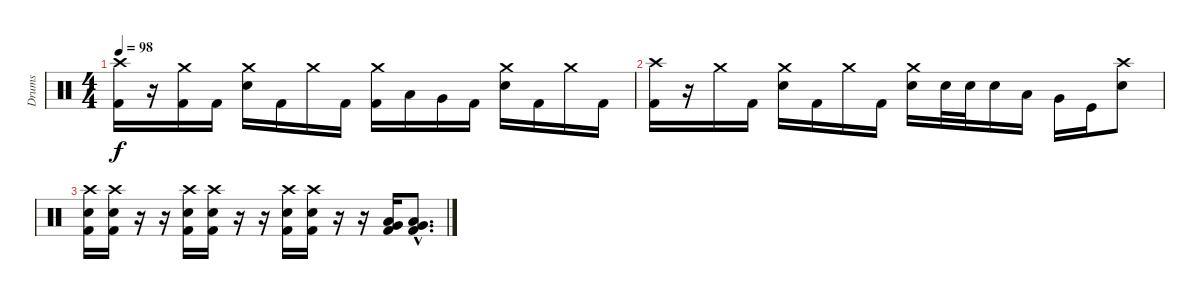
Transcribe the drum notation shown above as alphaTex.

\track ("Drums" "Drums") {instrument percussion}
\staff {score}
\articulation defaults
\ts (4 4)
\tempo 98
\clef neutral
\ks c
("Crash high (hit)" "Kick (hit) 2").16{dy f} r.16 ("Crash medium (hit)" "Kick (hit) 2").16 "Kick (hit) 2".16 ("Crash medium (hit)" "Snare (hit) 2").16 "Kick (hit) 2".16 "Crash medium (hit)".16 "Kick (hit) 2".16 ("Crash medium (hit)" "Kick (hit) 2").16 "Low Tom (hit)".16 "Very Low Tom (hit)".16 "Kick (hit) 2".16 ("Crash medium (hit)" "Snare (hit) 2").16 "Kick (hit) 2".16 "Crash medium (hit)".16 "Kick (hit) 2".16 |
("Crash high (hit)" "Kick (hit) 2").16 r.16 "Crash medium (hit)".16 "Kick (hit) 2".16 ("Crash medium (hit)" "Snare (hit) 2").16 "Kick (hit) 2".16 "Crash medium (hit)".16 "Kick (hit) 2".16 ("Crash medium (hit)" "Snare (hit) 2").16 "Snare (hit) 2".32 "Snare (hit) 2".32 "Snare (hit) 2".16 "Low Tom (hit)".16 "Very Low Tom (hit)".16 "Kick (hit)".16 ("Crash high (hit)" "Snare (hit) 2").8 |
("Crash high (hit)" "Snare (hit) 2" "Kick (hit) 2").16 ("Crash high (hit)" "Snare (hit) 2" "Kick (hit) 2").16 r.16 r.16 ("Crash high (hit)" "Snare (hit) 2" "Kick (hit) 2").16 ("Crash high (hit)" "Snare (hit) 2" "Kick (hit) 2").16 r.16 r.16 ("Crash high (hit)" "Snare (hit) 2" "Kick (hit) 2").16 ("Crash high (hit)" "Snare (hit) 2" "Kick (hit) 2").16 r.16 r.16 ("Low Tom (hit)" "Very Low Tom (hit)" "Kick (hit) 2").16 ("Low Tom (hit)"{hac} "Very Low Tom (hit)"{hac} "Kick (hit) 2"{hac}).8{d}
